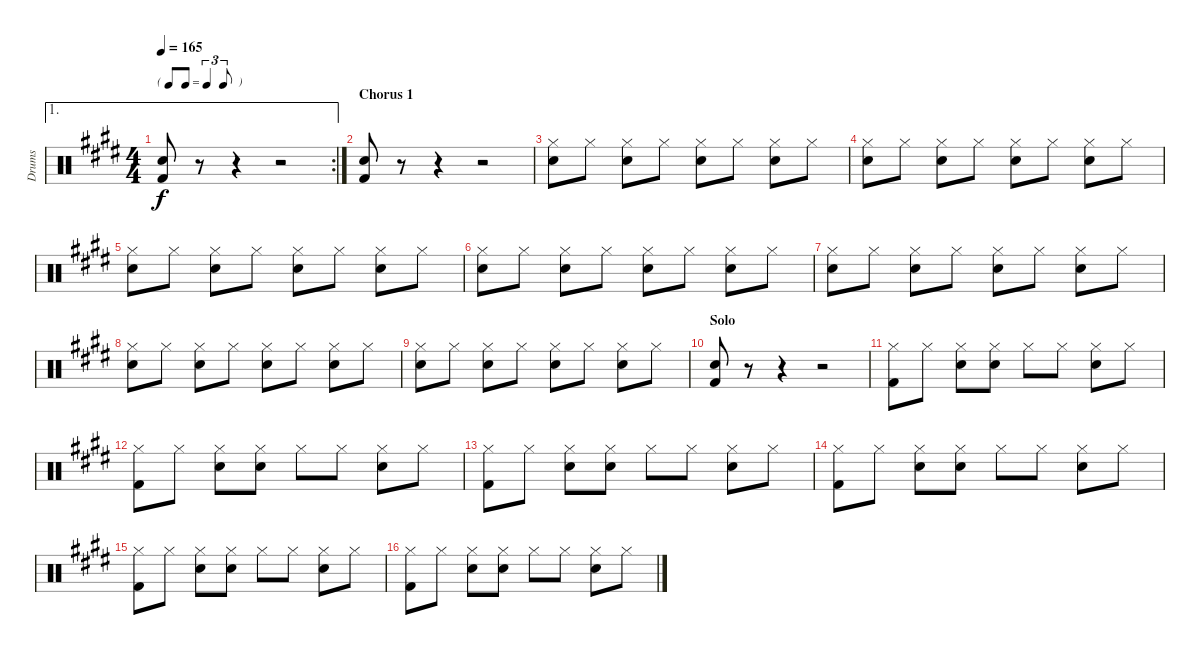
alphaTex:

\track ("Drums" "Drums") {instrument percussion}
\staff {score}
\articulation defaults
\ae 1
\rc 2
\ts (4 4)
\tf triplet8th
\tempo 165
\clef neutral
\ks e
("Snare (hit) 2" "Kick (hit) 2").8{dy f} r.8 r.4 r.2 |
\section ("" "Chorus 1")
("Snare (hit) 2" "Kick (hit) 2").8 r.8 r.4 r.2 |
("Hi-Hat (closed)" "Snare (hit) 2").8 "Hi-Hat (closed)".8 ("Hi-Hat (closed)" "Snare (hit) 2").8 "Hi-Hat (closed)".8 ("Hi-Hat (closed)" "Snare (hit) 2").8 "Hi-Hat (closed)".8 ("Hi-Hat (closed)" "Snare (hit) 2").8 "Hi-Hat (closed)".8 |
("Hi-Hat (closed)" "Snare (hit) 2").8 "Hi-Hat (closed)".8 ("Hi-Hat (closed)" "Snare (hit) 2").8 "Hi-Hat (closed)".8 ("Hi-Hat (closed)" "Snare (hit) 2").8 "Hi-Hat (closed)".8 ("Hi-Hat (closed)" "Snare (hit) 2").8 "Hi-Hat (closed)".8 |
("Hi-Hat (closed)" "Snare (hit) 2").8 "Hi-Hat (closed)".8 ("Hi-Hat (closed)" "Snare (hit) 2").8 "Hi-Hat (closed)".8 ("Hi-Hat (closed)" "Snare (hit) 2").8 "Hi-Hat (closed)".8 ("Hi-Hat (closed)" "Snare (hit) 2").8 "Hi-Hat (closed)".8 |
("Hi-Hat (closed)" "Snare (hit) 2").8 "Hi-Hat (closed)".8 ("Hi-Hat (closed)" "Snare (hit) 2").8 "Hi-Hat (closed)".8 ("Hi-Hat (closed)" "Snare (hit) 2").8 "Hi-Hat (closed)".8 ("Hi-Hat (closed)" "Snare (hit) 2").8 "Hi-Hat (closed)".8 |
("Hi-Hat (closed)" "Snare (hit) 2").8 "Hi-Hat (closed)".8 ("Hi-Hat (closed)" "Snare (hit) 2").8 "Hi-Hat (closed)".8 ("Hi-Hat (closed)" "Snare (hit) 2").8 "Hi-Hat (closed)".8 ("Hi-Hat (closed)" "Snare (hit) 2").8 "Hi-Hat (closed)".8 |
("Hi-Hat (closed)" "Snare (hit) 2").8 "Hi-Hat (closed)".8 ("Hi-Hat (closed)" "Snare (hit) 2").8 "Hi-Hat (closed)".8 ("Hi-Hat (closed)" "Snare (hit) 2").8 "Hi-Hat (closed)".8 ("Hi-Hat (closed)" "Snare (hit) 2").8 "Hi-Hat (closed)".8 |
("Hi-Hat (closed)" "Snare (hit) 2").8 "Hi-Hat (closed)".8 ("Hi-Hat (closed)" "Snare (hit) 2").8 "Hi-Hat (closed)".8 ("Hi-Hat (closed)" "Snare (hit) 2").8 "Hi-Hat (closed)".8 ("Hi-Hat (closed)" "Snare (hit) 2").8 "Hi-Hat (closed)".8 |
\section ("" "Solo")
("Snare (hit) 2" "Kick (hit) 2").8 r.8 r.4 r.2 |
("Hi-Hat (closed)" "Kick (hit) 2").8 "Hi-Hat (closed)".8 ("Hi-Hat (closed)" "Snare (hit) 2").8 ("Hi-Hat (closed)" "Snare (hit) 2").8 "Hi-Hat (closed)".8 "Hi-Hat (closed)".8 ("Hi-Hat (closed)" "Snare (hit) 2").8 "Hi-Hat (closed)".8 |
("Hi-Hat (closed)" "Kick (hit) 2").8 "Hi-Hat (closed)".8 ("Hi-Hat (closed)" "Snare (hit) 2").8 ("Hi-Hat (closed)" "Snare (hit) 2").8 "Hi-Hat (closed)".8 "Hi-Hat (closed)".8 ("Hi-Hat (closed)" "Snare (hit) 2").8 "Hi-Hat (closed)".8 |
("Hi-Hat (closed)" "Kick (hit) 2").8 "Hi-Hat (closed)".8 ("Hi-Hat (closed)" "Snare (hit) 2").8 ("Hi-Hat (closed)" "Snare (hit) 2").8 "Hi-Hat (closed)".8 "Hi-Hat (closed)".8 ("Hi-Hat (closed)" "Snare (hit) 2").8 "Hi-Hat (closed)".8 |
("Hi-Hat (closed)" "Kick (hit) 2").8 "Hi-Hat (closed)".8 ("Hi-Hat (closed)" "Snare (hit) 2").8 ("Hi-Hat (closed)" "Snare (hit) 2").8 "Hi-Hat (closed)".8 "Hi-Hat (closed)".8 ("Hi-Hat (closed)" "Snare (hit) 2").8 "Hi-Hat (closed)".8 |
("Hi-Hat (closed)" "Kick (hit) 2").8 "Hi-Hat (closed)".8 ("Hi-Hat (closed)" "Snare (hit) 2").8 ("Hi-Hat (closed)" "Snare (hit) 2").8 "Hi-Hat (closed)".8 "Hi-Hat (closed)".8 ("Hi-Hat (closed)" "Snare (hit) 2").8 "Hi-Hat (closed)".8 |
("Hi-Hat (closed)" "Kick (hit) 2").8 "Hi-Hat (closed)".8 ("Hi-Hat (closed)" "Snare (hit) 2").8 ("Hi-Hat (closed)" "Snare (hit) 2").8 "Hi-Hat (closed)".8 "Hi-Hat (closed)".8 ("Hi-Hat (closed)" "Snare (hit) 2").8 "Hi-Hat (closed)".8
